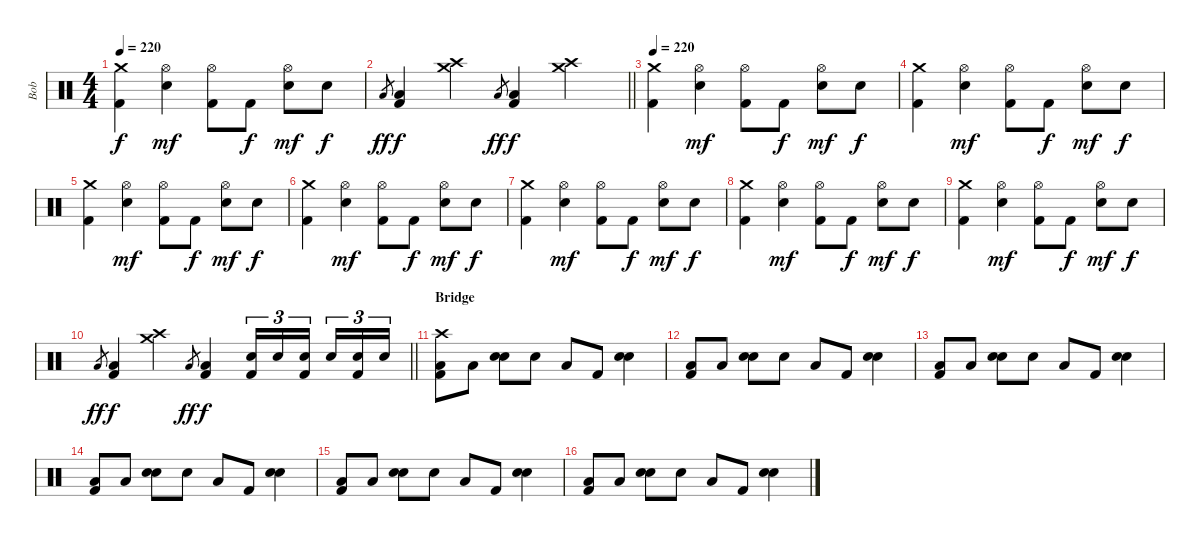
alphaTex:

\track ("Bob" "Bob") {instrument percussion}
\staff {score}
\articulation defaults
\ts (4 4)
\tempo 220
\clef neutral
\ks c
("Crash medium (hit)" "Kick (hit) 2").4{dy f} ("Hi-Hat (open)" "Electric Snare (hit)").4{dy mf} ("Hi-Hat (open)" "Kick (hit) 2").8 "Kick (hit) 2".8{dy f} ("Hi-Hat (open)" "Electric Snare (hit)").8{dy mf} "Electric Snare (hit)".8{dy f} |
\barLineRight lightlight "Low Floor Tom (hit)".8{gr dy ff}
("Low Floor Tom (hit)" "Kick (hit) 2").4{dy f} ("Crash medium (hit)" "Crash high (hit)").4 "Low Floor Tom (hit)".8{gr dy ff} ("Low Floor Tom (hit)" "Kick (hit) 2").4{dy f} ("Crash medium (hit)" "Crash high (hit)").4 |
\tempo 220
("Crash medium (hit)" "Kick (hit) 2").4 ("Hi-Hat (open)" "Electric Snare (hit)").4{dy mf} ("Hi-Hat (open)" "Kick (hit) 2").8 "Kick (hit) 2".8{dy f} ("Hi-Hat (open)" "Electric Snare (hit)").8{dy mf} "Electric Snare (hit)".8{dy f} |
("Crash medium (hit)" "Kick (hit) 2").4 ("Hi-Hat (open)" "Electric Snare (hit)").4{dy mf} ("Hi-Hat (open)" "Kick (hit) 2").8 "Kick (hit) 2".8{dy f} ("Hi-Hat (open)" "Electric Snare (hit)").8{dy mf} "Electric Snare (hit)".8{dy f} |
("Crash medium (hit)" "Kick (hit) 2").4 ("Hi-Hat (open)" "Electric Snare (hit)").4{dy mf} ("Hi-Hat (open)" "Kick (hit) 2").8 "Kick (hit) 2".8{dy f} ("Hi-Hat (open)" "Electric Snare (hit)").8{dy mf} "Electric Snare (hit)".8{dy f} |
("Crash medium (hit)" "Kick (hit) 2").4 ("Hi-Hat (open)" "Electric Snare (hit)").4{dy mf} ("Hi-Hat (open)" "Kick (hit) 2").8 "Kick (hit) 2".8{dy f} ("Hi-Hat (open)" "Electric Snare (hit)").8{dy mf} "Electric Snare (hit)".8{dy f} |
("Crash medium (hit)" "Kick (hit) 2").4 ("Hi-Hat (open)" "Electric Snare (hit)").4{dy mf} ("Hi-Hat (open)" "Kick (hit) 2").8 "Kick (hit) 2".8{dy f} ("Hi-Hat (open)" "Electric Snare (hit)").8{dy mf} "Electric Snare (hit)".8{dy f} |
("Crash medium (hit)" "Kick (hit) 2").4 ("Hi-Hat (open)" "Electric Snare (hit)").4{dy mf} ("Hi-Hat (open)" "Kick (hit) 2").8 "Kick (hit) 2".8{dy f} ("Hi-Hat (open)" "Electric Snare (hit)").8{dy mf} "Electric Snare (hit)".8{dy f} |
("Crash medium (hit)" "Kick (hit) 2").4 ("Hi-Hat (open)" "Electric Snare (hit)").4{dy mf} ("Hi-Hat (open)" "Kick (hit) 2").8 "Kick (hit) 2".8{dy f} ("Hi-Hat (open)" "Electric Snare (hit)").8{dy mf} "Electric Snare (hit)".8{dy f} |
\barLineRight lightlight "Low Floor Tom (hit)".8{gr dy ff}
("Low Floor Tom (hit)" "Kick (hit) 2").4{dy f} ("Crash medium (hit)" "Crash high (hit)").4 "Low Floor Tom (hit)".8{gr dy ff} ("Low Floor Tom (hit)" "Kick (hit) 2").4{dy f} ("Snare (hit) 2" "Kick (hit) 2").16{tu (3 2)} "Snare (hit) 2".16{tu (3 2)} ("Snare (hit) 2" "Kick (hit) 2").16{tu (3 2)} "Snare (hit) 2".16{tu (3 2)} ("Snare (hit) 2" "Kick (hit) 2").16{tu (3 2)} "Snare (hit) 2".16{tu (3 2)} |
\section ("" "Bridge")
("Crash high (hit)" "Low Floor Tom (hit)" "Kick (hit) 2").8 "Low Floor Tom (hit)".8 ("Hand Clap (hit)" "Electric Snare (hit)").8 "Hand Clap (hit)".8 "Low Floor Tom (hit)".8 "Kick (hit) 2".8 ("Hand Clap (hit)" "Electric Snare (hit)").4 |
("Low Floor Tom (hit)" "Kick (hit) 2").8 "Low Floor Tom (hit)".8 ("Hand Clap (hit)" "Electric Snare (hit)").8 "Hand Clap (hit)".8 "Low Floor Tom (hit)".8 "Kick (hit) 2".8 ("Hand Clap (hit)" "Electric Snare (hit)").4 |
("Low Floor Tom (hit)" "Kick (hit) 2").8 "Low Floor Tom (hit)".8 ("Hand Clap (hit)" "Electric Snare (hit)").8 "Hand Clap (hit)".8 "Low Floor Tom (hit)".8 "Kick (hit) 2".8 ("Hand Clap (hit)" "Electric Snare (hit)").4 |
("Low Floor Tom (hit)" "Kick (hit) 2").8 "Low Floor Tom (hit)".8 ("Hand Clap (hit)" "Electric Snare (hit)").8 "Hand Clap (hit)".8 "Low Floor Tom (hit)".8 "Kick (hit) 2".8 ("Hand Clap (hit)" "Electric Snare (hit)").4 |
("Low Floor Tom (hit)" "Kick (hit) 2").8 "Low Floor Tom (hit)".8 ("Hand Clap (hit)" "Electric Snare (hit)").8 "Hand Clap (hit)".8 "Low Floor Tom (hit)".8 "Kick (hit) 2".8 ("Hand Clap (hit)" "Electric Snare (hit)").4 |
("Low Floor Tom (hit)" "Kick (hit) 2").8 "Low Floor Tom (hit)".8 ("Hand Clap (hit)" "Electric Snare (hit)").8 "Hand Clap (hit)".8 "Low Floor Tom (hit)".8 "Kick (hit) 2".8 ("Hand Clap (hit)" "Electric Snare (hit)").4
